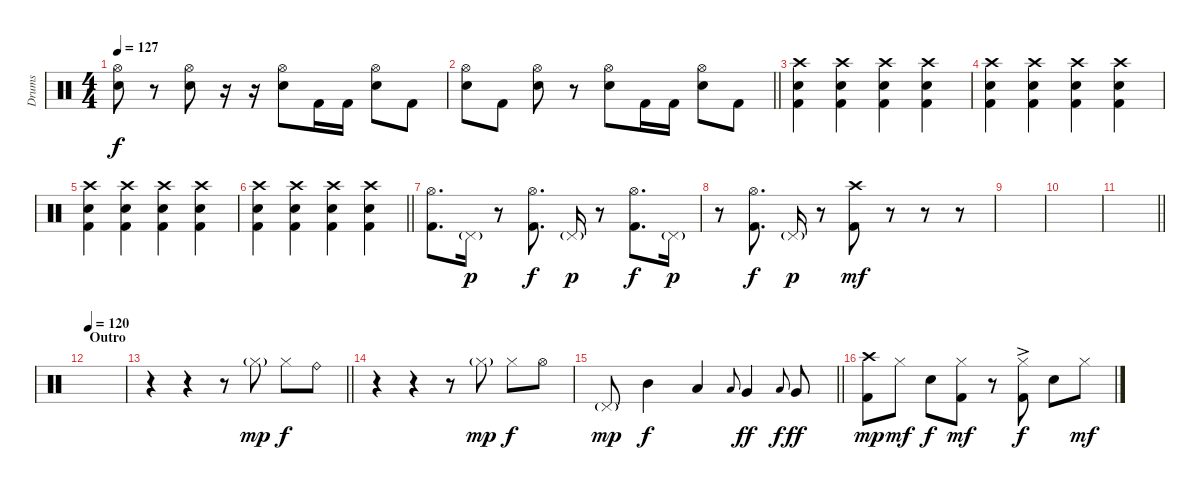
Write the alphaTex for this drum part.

\track ("Drums" "Drums") {instrument percussion}
\staff {score}
\articulation defaults
\ts (4 4)
\tempo 127
\clef neutral
\ks c
("Hi-Hat (open)" "Snare (hit) 2").8{dy f} r.8 ("Hi-Hat (open)" "Snare (hit) 2").8 r.16 r.16 ("Hi-Hat (open)" "Snare (hit) 2").8 "Kick (hit) 2".16 "Kick (hit) 2".16 ("Hi-Hat (open)" "Snare (hit) 2").8 "Kick (hit) 2".8 |
\barLineRight lightlight
("Hi-Hat (open)" "Snare (hit) 2").8 "Kick (hit) 2".8 ("Hi-Hat (open)" "Snare (hit) 2").8 r.8 ("Hi-Hat (open)" "Snare (hit) 2").8 "Kick (hit) 2".16 "Kick (hit) 2".16 ("Hi-Hat (open)" "Snare (hit) 2").8 "Kick (hit) 2".8 |
("Crash high (hit)" "Snare (hit) 2" "Kick (hit) 2").4 ("Crash high (hit)" "Snare (hit) 2" "Kick (hit) 2").4 ("Crash high (hit)" "Snare (hit) 2" "Kick (hit) 2").4 ("Crash high (hit)" "Snare (hit) 2" "Kick (hit) 2").4 |
("Crash high (hit)" "Snare (hit) 2" "Kick (hit) 2").4 ("Crash high (hit)" "Snare (hit) 2" "Kick (hit) 2").4 ("Crash high (hit)" "Snare (hit) 2" "Kick (hit) 2").4 ("Crash high (hit)" "Snare (hit) 2" "Kick (hit) 2").4 |
("Crash high (hit)" "Snare (hit) 2" "Kick (hit) 2").4 ("Crash high (hit)" "Snare (hit) 2" "Kick (hit) 2").4 ("Crash high (hit)" "Snare (hit) 2" "Kick (hit) 2").4 ("Crash high (hit)" "Snare (hit) 2" "Kick (hit) 2").4 |
\barLineRight lightlight
("Crash high (hit)" "Snare (hit) 2" "Kick (hit) 2").4 ("Crash high (hit)" "Snare (hit) 2" "Kick (hit) 2").4 ("Crash high (hit)" "Snare (hit) 2" "Kick (hit) 2").4 ("Crash high (hit)" "Snare (hit) 2" "Kick (hit) 2").4 |
("Hi-Hat (open)" "Kick (hit) 2").8{d} "Pedal Hi-Hat (hit)"{g}.16{dy p} r.8 ("Hi-Hat (open)" "Kick (hit) 2").8{d dy f} "Pedal Hi-Hat (hit)"{g}.16{dy p} r.8 ("Hi-Hat (open)" "Kick (hit) 2").8{d dy f} "Pedal Hi-Hat (hit)"{g}.16{dy p} |
r.8 ("Hi-Hat (open)" "Kick (hit) 2").8{d dy f} "Pedal Hi-Hat (hit)"{g}.16{dy p} r.8 ("Crash high (hit)" "Kick (hit) 2").8{dy mf} r.8 r.8 r.8 |
|
|
\barLineRight lightlight
|
\section ("" "Outro")
\tempo 120
|
\barLineRight lightlight
r.4 r.4 r.8 "Hi-Hat (closed)"{g}.8{dy mp} "Hi-Hat (closed)".8{dy f} "Ride (bell)".8 |
r.4 r.4 r.8 "Hi-Hat (closed)"{g}.8{dy mp} "Hi-Hat (closed)".8{dy f} "Hi-Hat (open)".8 |
\barLineRight lightlight "Pedal Hi-Hat (hit)"{g}.8{dy mp} "Mid Tom (hit)".4{dy f} "Low Tom (hit)".4 "Low Tom (hit)".8{gr onbeat} "Very Low Tom (hit)".4{dy ff} "Low Tom (hit)".8{gr onbeat dy f} "Very Low Tom (hit)".8{dy ff}
|
("Crash high (hit)" "Kick (hit) 2").8{dy mp} "Hi-Hat (closed)".8{dy mf} "Snare (hit) 2".8{dy f} ("Hi-Hat (closed)" "Kick (hit) 2").8{dy mf} r.8 ("Hi-Hat (closed)"{ac} "Kick (hit) 2").8{dy f} "Snare (hit) 2".8 "Hi-Hat (closed)".8{dy mf}
